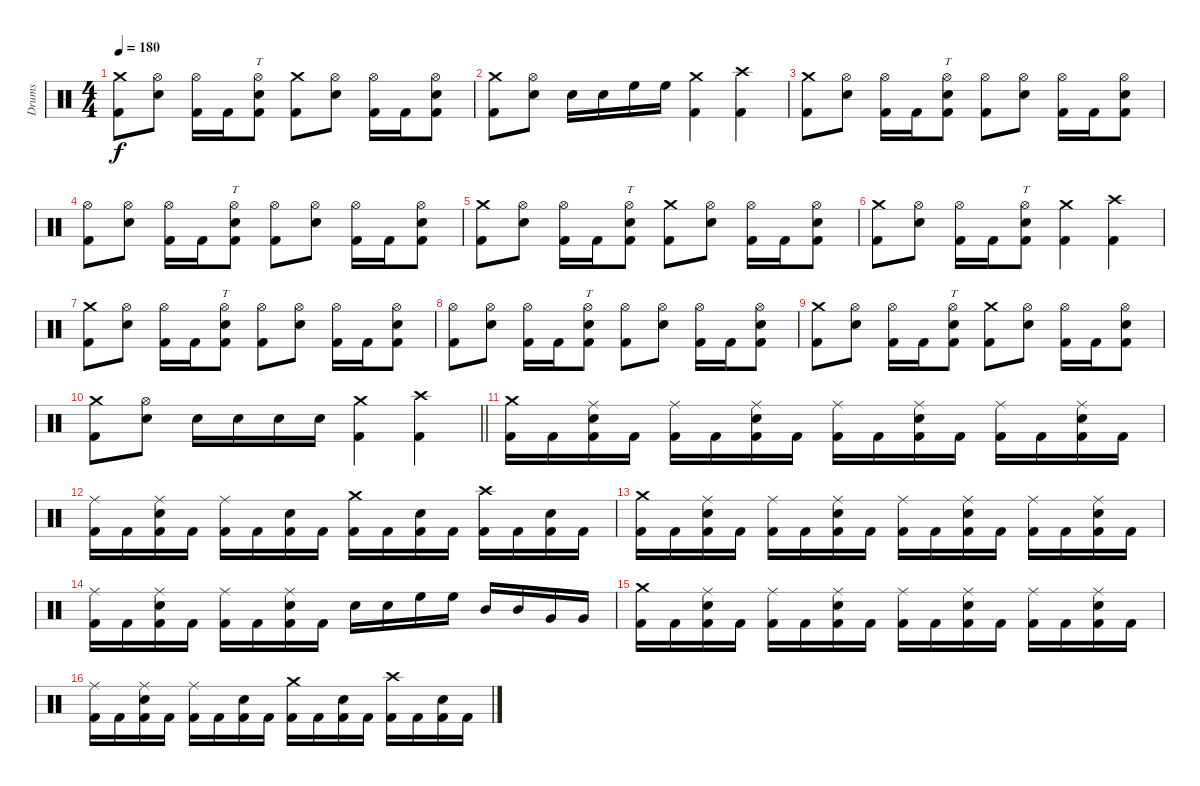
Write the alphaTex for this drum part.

\track ("Drums" "Drums") {instrument percussion}
\staff {score}
\articulation defaults
\ts (4 4)
\tempo 180
\clef neutral
\ks c
("Crash medium (hit)" "Kick (hit) 2").8{dy f} ("Hi-Hat (open)" "Electric Snare (hit)").8 ("Hi-Hat (open)" "Kick (hit) 2").16 "Kick (hit) 2".16 ("Hi-Hat (open)" "Electric Snare (hit)" "Kick (hit) 2").8{tt} ("Crash medium (hit)" "Kick (hit) 2").8 ("Hi-Hat (open)" "Electric Snare (hit)").8 ("Hi-Hat (open)" "Kick (hit) 2").16 "Kick (hit) 2".16 ("Hi-Hat (open)" "Electric Snare (hit)" "Kick (hit) 2").8 |
("Crash medium (hit)" "Kick (hit) 2").8 ("Hi-Hat (open)" "Electric Snare (hit)").8 "Electric Snare (hit)".16 "Electric Snare (hit)".16 "High Floor Tom (hit)".16 "High Floor Tom (hit)".16 ("Crash medium (hit)" "Kick (hit) 2").4 ("Crash high (hit)" "Kick (hit) 2").4 |
("Crash medium (hit)" "Kick (hit) 2").8 ("Hi-Hat (open)" "Electric Snare (hit)").8 ("Hi-Hat (open)" "Kick (hit) 2").16 "Kick (hit) 2".16 ("Hi-Hat (open)" "Electric Snare (hit)" "Kick (hit) 2").8{tt} ("Hi-Hat (open)" "Kick (hit) 2").8 ("Hi-Hat (open)" "Electric Snare (hit)").8 ("Hi-Hat (open)" "Kick (hit) 2").16 "Kick (hit) 2".16 ("Hi-Hat (open)" "Electric Snare (hit)" "Kick (hit) 2").8 |
("Hi-Hat (open)" "Kick (hit) 2").8 ("Hi-Hat (open)" "Electric Snare (hit)").8 ("Hi-Hat (open)" "Kick (hit) 2").16 "Kick (hit) 2".16 ("Hi-Hat (open)" "Electric Snare (hit)" "Kick (hit) 2").8{tt} ("Hi-Hat (open)" "Kick (hit) 2").8 ("Hi-Hat (open)" "Electric Snare (hit)").8 ("Hi-Hat (open)" "Kick (hit) 2").16 "Kick (hit) 2".16 ("Hi-Hat (open)" "Electric Snare (hit)" "Kick (hit) 2").8 |
("Crash medium (hit)" "Kick (hit) 2").8 ("Hi-Hat (open)" "Electric Snare (hit)").8 ("Hi-Hat (open)" "Kick (hit) 2").16 "Kick (hit) 2".16 ("Hi-Hat (open)" "Electric Snare (hit)" "Kick (hit) 2").8{tt} ("Crash medium (hit)" "Kick (hit) 2").8 ("Hi-Hat (open)" "Electric Snare (hit)").8 ("Hi-Hat (open)" "Kick (hit) 2").16 "Kick (hit) 2".16 ("Hi-Hat (open)" "Electric Snare (hit)" "Kick (hit) 2").8 |
("Crash medium (hit)" "Kick (hit) 2").8 ("Hi-Hat (open)" "Electric Snare (hit)").8 ("Hi-Hat (open)" "Kick (hit) 2").16 "Kick (hit) 2".16 ("Hi-Hat (open)" "Electric Snare (hit)" "Kick (hit) 2").8{tt} ("Crash medium (hit)" "Kick (hit) 2").4 ("Crash high (hit)" "Kick (hit) 2").4 |
("Crash medium (hit)" "Kick (hit) 2").8 ("Hi-Hat (open)" "Electric Snare (hit)").8 ("Hi-Hat (open)" "Kick (hit) 2").16 "Kick (hit) 2".16 ("Hi-Hat (open)" "Electric Snare (hit)" "Kick (hit) 2").8{tt} ("Hi-Hat (open)" "Kick (hit) 2").8 ("Hi-Hat (open)" "Electric Snare (hit)").8 ("Hi-Hat (open)" "Kick (hit) 2").16 "Kick (hit) 2".16 ("Hi-Hat (open)" "Electric Snare (hit)" "Kick (hit) 2").8 |
("Hi-Hat (open)" "Kick (hit) 2").8 ("Hi-Hat (open)" "Electric Snare (hit)").8 ("Hi-Hat (open)" "Kick (hit) 2").16 "Kick (hit) 2".16 ("Hi-Hat (open)" "Electric Snare (hit)" "Kick (hit) 2").8{tt} ("Hi-Hat (open)" "Kick (hit) 2").8 ("Hi-Hat (open)" "Electric Snare (hit)").8 ("Hi-Hat (open)" "Kick (hit) 2").16 "Kick (hit) 2".16 ("Hi-Hat (open)" "Electric Snare (hit)" "Kick (hit) 2").8 |
("Crash medium (hit)" "Kick (hit) 2").8 ("Hi-Hat (open)" "Electric Snare (hit)").8 ("Hi-Hat (open)" "Kick (hit) 2").16 "Kick (hit) 2".16 ("Hi-Hat (open)" "Electric Snare (hit)" "Kick (hit) 2").8{tt} ("Crash medium (hit)" "Kick (hit) 2").8 ("Hi-Hat (open)" "Electric Snare (hit)").8 ("Hi-Hat (open)" "Kick (hit) 2").16 "Kick (hit) 2".16 ("Hi-Hat (open)" "Electric Snare (hit)" "Kick (hit) 2").8 |
\barLineRight lightlight
("Crash medium (hit)" "Kick (hit) 2").8 ("Hi-Hat (open)" "Electric Snare (hit)").8 "Electric Snare (hit)".16 "Electric Snare (hit)".16 "Electric Snare (hit)".16 "Electric Snare (hit)".16 ("Crash medium (hit)" "Kick (hit) 2").4 ("Crash high (hit)" "Kick (hit) 2").4 |
("Crash medium (hit)" "Kick (hit) 2").16 "Kick (hit) 2".16 ("Ride (middle)" "Electric Snare (hit)" "Kick (hit) 2").16 "Kick (hit) 2".16 ("Ride (middle)" "Kick (hit) 2").16 "Kick (hit) 2".16 ("Ride (middle)" "Electric Snare (hit)" "Kick (hit) 2").16 "Kick (hit) 2".16 ("Ride (middle)" "Kick (hit) 2").16 "Kick (hit) 2".16 ("Ride (middle)" "Electric Snare (hit)" "Kick (hit) 2").16 "Kick (hit) 2".16 ("Ride (middle)" "Kick (hit) 2").16 "Kick (hit) 2".16 ("Ride (middle)" "Electric Snare (hit)" "Kick (hit) 2").16 "Kick (hit) 2".16 |
("Ride (middle)" "Kick (hit) 2").16 "Kick (hit) 2".16 ("Ride (middle)" "Electric Snare (hit)" "Kick (hit) 2").16 "Kick (hit) 2".16 ("Ride (middle)" "Kick (hit) 2").16 "Kick (hit) 2".16 ("Electric Snare (hit)" "Kick (hit) 2").16 "Kick (hit) 2".16 ("Crash medium (hit)" "Kick (hit) 2").16 "Kick (hit) 2".16 ("Electric Snare (hit)" "Kick (hit) 2").16 "Kick (hit) 2".16 ("Crash high (hit)" "Kick (hit) 2").16 "Kick (hit) 2".16 ("Electric Snare (hit)" "Kick (hit) 2").16 "Kick (hit) 2".16 |
("Crash medium (hit)" "Kick (hit) 2").16 "Kick (hit) 2".16 ("Ride (middle)" "Electric Snare (hit)" "Kick (hit) 2").16 "Kick (hit) 2".16 ("Ride (middle)" "Kick (hit) 2").16 "Kick (hit) 2".16 ("Ride (middle)" "Electric Snare (hit)" "Kick (hit) 2").16 "Kick (hit) 2".16 ("Ride (middle)" "Kick (hit) 2").16 "Kick (hit) 2".16 ("Ride (middle)" "Electric Snare (hit)" "Kick (hit) 2").16 "Kick (hit) 2".16 ("Ride (middle)" "Kick (hit) 2").16 "Kick (hit) 2".16 ("Ride (middle)" "Electric Snare (hit)" "Kick (hit) 2").16 "Kick (hit) 2".16 |
("Ride (middle)" "Kick (hit) 2").16 "Kick (hit) 2".16 ("Ride (middle)" "Electric Snare (hit)" "Kick (hit) 2").16 "Kick (hit) 2".16 ("Ride (middle)" "Kick (hit) 2").16 "Kick (hit) 2".16 ("Ride (middle)" "Electric Snare (hit)" "Kick (hit) 2").16 "Kick (hit) 2".16 "Electric Snare (hit)".16 "Electric Snare (hit)".16 "High Floor Tom (hit)".16 "High Floor Tom (hit)".16 "Mid Tom (hit)".16 "Mid Tom (hit)".16 "Very Low Tom (hit)".16 "Very Low Tom (hit)".16 |
("Crash medium (hit)" "Kick (hit) 2").16 "Kick (hit) 2".16 ("Ride (middle)" "Electric Snare (hit)" "Kick (hit) 2").16 "Kick (hit) 2".16 ("Ride (middle)" "Kick (hit) 2").16 "Kick (hit) 2".16 ("Ride (middle)" "Electric Snare (hit)" "Kick (hit) 2").16 "Kick (hit) 2".16 ("Ride (middle)" "Kick (hit) 2").16 "Kick (hit) 2".16 ("Ride (middle)" "Electric Snare (hit)" "Kick (hit) 2").16 "Kick (hit) 2".16 ("Ride (middle)" "Kick (hit) 2").16 "Kick (hit) 2".16 ("Ride (middle)" "Electric Snare (hit)" "Kick (hit) 2").16 "Kick (hit) 2".16 |
("Ride (middle)" "Kick (hit) 2").16 "Kick (hit) 2".16 ("Ride (middle)" "Electric Snare (hit)" "Kick (hit) 2").16 "Kick (hit) 2".16 ("Ride (middle)" "Kick (hit) 2").16 "Kick (hit) 2".16 ("Electric Snare (hit)" "Kick (hit) 2").16 "Kick (hit) 2".16 ("Crash medium (hit)" "Kick (hit) 2").16 "Kick (hit) 2".16 ("Electric Snare (hit)" "Kick (hit) 2").16 "Kick (hit) 2".16 ("Crash high (hit)" "Kick (hit) 2").16 "Kick (hit) 2".16 ("Electric Snare (hit)" "Kick (hit) 2").16 "Kick (hit) 2".16
